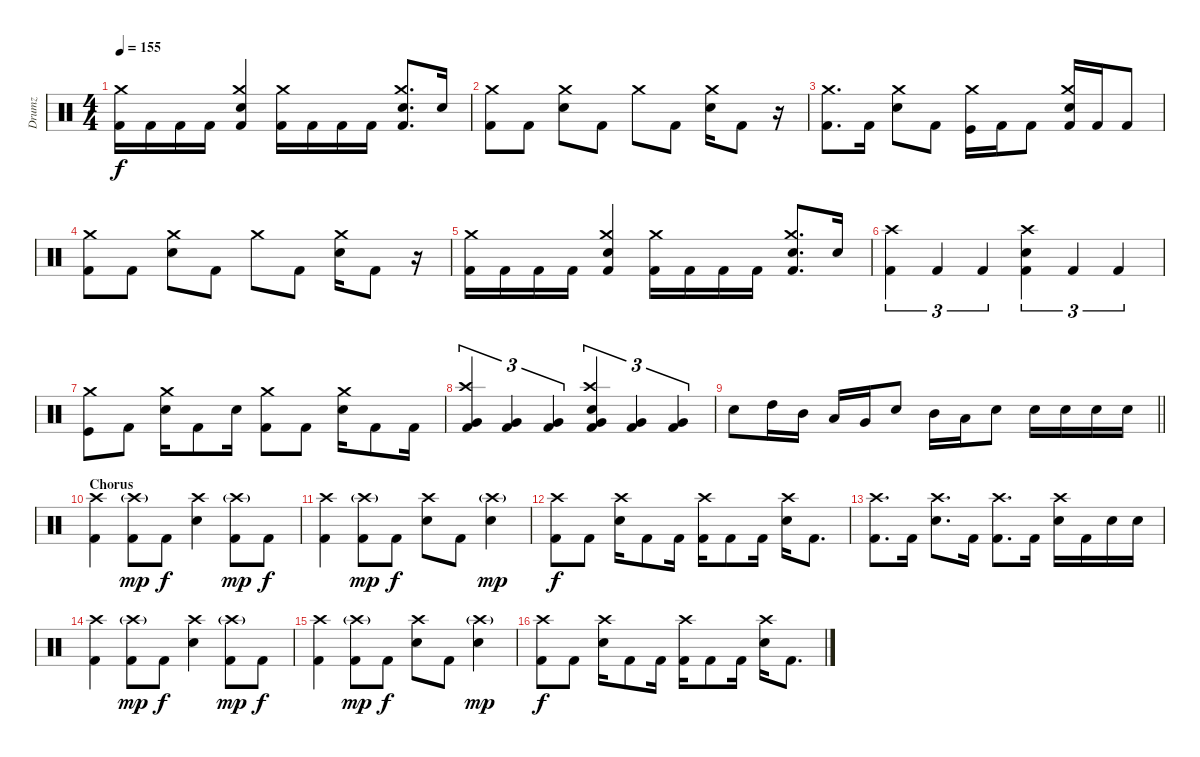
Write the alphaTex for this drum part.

\track ("Drumz" "Drumz") {instrument percussion}
\staff {score}
\articulation defaults
\ts (4 4)
\tempo 155
\clef neutral
\ks c
("Kick (hit) 2" "Crash medium (hit)").16{dy f} "Kick (hit) 2".16 "Kick (hit) 2".16 "Kick (hit) 2".16 ("Kick (hit) 2" "Crash medium (hit)" "Electric Snare (hit)").4 ("Kick (hit) 2" "Crash medium (hit)").16 "Kick (hit) 2".16 "Kick (hit) 2".16 "Kick (hit) 2".16 ("Kick (hit) 2" "Crash medium (hit)" "Electric Snare (hit)").8{d} "Electric Snare (hit)".16 |
("Crash medium (hit)" "Kick (hit) 2").8 "Kick (hit) 2".8 ("Crash medium (hit)" "Electric Snare (hit)").8 "Kick (hit) 2".8 "Crash medium (hit)".8 "Kick (hit) 2".8 ("Crash medium (hit)" "Electric Snare (hit)").16 "Kick (hit) 2".8 r.16 |
("Crash medium (hit)" "Kick (hit) 2").8{d} "Kick (hit) 2".16 ("Crash medium (hit)" "Electric Snare (hit)").8 "Kick (hit) 2".8 ("Crash medium (hit)" "Kick (hit)").16 "Kick (hit) 2".16 "Kick (hit) 2".8 ("Kick (hit) 2" "Crash medium (hit)" "Electric Snare (hit)").16 "Kick (hit) 2".16 "Kick (hit) 2".8 |
("Crash medium (hit)" "Kick (hit) 2").8 "Kick (hit) 2".8 ("Crash medium (hit)" "Electric Snare (hit)").8 "Kick (hit) 2".8 "Crash medium (hit)".8 "Kick (hit) 2".8 ("Crash medium (hit)" "Electric Snare (hit)").16 "Kick (hit) 2".8 r.16 |
("Kick (hit) 2" "Crash medium (hit)").16 "Kick (hit) 2".16 "Kick (hit) 2".16 "Kick (hit) 2".16 ("Kick (hit) 2" "Crash medium (hit)" "Electric Snare (hit)").4 ("Kick (hit) 2" "Crash medium (hit)").16 "Kick (hit) 2".16 "Kick (hit) 2".16 "Kick (hit) 2".16 ("Kick (hit) 2" "Crash medium (hit)" "Electric Snare (hit)").8{d} "Electric Snare (hit)".16 |
("Crash high (hit)" "Kick (hit) 2").4{tu (3 2)} "Kick (hit) 2".4{tu (3 2)} "Kick (hit) 2".4{tu (3 2)} ("Crash high (hit)" "Kick (hit) 2" "Electric Snare (hit)").4{tu (3 2)} "Kick (hit) 2".4{tu (3 2)} "Kick (hit) 2".4{tu (3 2)} |
("Kick (hit)" "Crash medium (hit)").8 "Kick (hit) 2".8 ("Electric Snare (hit)" "Crash medium (hit)").16 "Kick (hit) 2".8 "Electric Snare (hit)".16 ("Crash medium (hit)" "Kick (hit) 2").8 "Kick (hit) 2".8 ("Crash medium (hit)" "Electric Snare (hit)").16 "Kick (hit) 2".8 "Kick (hit) 2".16 |
("Crash high (hit)" "Kick (hit) 2" "Very Low Tom (hit)").4{tu (3 2)} ("Kick (hit) 2" "Very Low Tom (hit)").4{tu (3 2)} ("Kick (hit) 2" "Very Low Tom (hit)").4{tu (3 2)} ("Crash high (hit)" "Kick (hit) 2" "Electric Snare (hit)" "Very Low Tom (hit)").4{tu (3 2)} ("Kick (hit) 2" "Very Low Tom (hit)").4{tu (3 2)} ("Kick (hit) 2" "Very Low Tom (hit)").4{tu (3 2)} |
\barLineRight lightlight "Electric Snare (hit)".8 "High Tom (hit)".16 "Mid Tom (hit)".16 "Low Tom (hit)".16 "Very Low Tom (hit)".16 "Electric Snare (hit)".8 "Mid Tom (hit)".16 "Low Tom (hit)".16 "Electric Snare (hit)".8 "Electric Snare (hit)".16 "Electric Snare (hit)".16 "Electric Snare (hit)".16 "Electric Snare (hit)".16
|
\section ("" "Chorus")
("Kick (hit) 2" "Crash high (hit)").4 ("Kick (hit) 2" "Crash high (hit)"{g}).8{dy mp} "Kick (hit) 2".8{dy f} ("Crash high (hit)" "Electric Snare (hit)").4 ("Kick (hit) 2" "Crash high (hit)"{g}).8{dy mp} "Kick (hit) 2".8{dy f} |
("Kick (hit) 2" "Crash high (hit)").4 ("Kick (hit) 2" "Crash high (hit)"{g}).8{dy mp} "Kick (hit) 2".8{dy f} ("Crash high (hit)" "Electric Snare (hit)").8 "Kick (hit) 2".8 ("Electric Snare (hit)" "Crash high (hit)"{g}).4{dy mp} |
("Kick (hit) 2" "Crash high (hit)").8{dy f} "Kick (hit) 2".8 ("Crash high (hit)" "Electric Snare (hit)").16 "Kick (hit) 2".8 "Kick (hit) 2".16 ("Kick (hit) 2" "Crash high (hit)").16 "Kick (hit) 2".8 "Kick (hit) 2".16 ("Crash high (hit)" "Electric Snare (hit)").16 "Kick (hit) 2".8{d} |
("Kick (hit) 2" "Crash high (hit)").8{d} "Kick (hit) 2".16 ("Crash high (hit)" "Electric Snare (hit)").8{d} "Kick (hit) 2".16 ("Kick (hit) 2" "Crash high (hit)").8{d} "Kick (hit) 2".16 ("Crash high (hit)" "Electric Snare (hit)").16 "Kick (hit) 2".16 "Electric Snare (hit)".16 "Electric Snare (hit)".16 |
("Kick (hit) 2" "Crash high (hit)").4 ("Kick (hit) 2" "Crash high (hit)"{g}).8{dy mp} "Kick (hit) 2".8{dy f} ("Crash high (hit)" "Electric Snare (hit)").4 ("Kick (hit) 2" "Crash high (hit)"{g}).8{dy mp} "Kick (hit) 2".8{dy f} |
("Kick (hit) 2" "Crash high (hit)").4 ("Kick (hit) 2" "Crash high (hit)"{g}).8{dy mp} "Kick (hit) 2".8{dy f} ("Crash high (hit)" "Electric Snare (hit)").8 "Kick (hit) 2".8 ("Electric Snare (hit)" "Crash high (hit)"{g}).4{dy mp} |
("Kick (hit) 2" "Crash high (hit)").8{dy f} "Kick (hit) 2".8 ("Crash high (hit)" "Electric Snare (hit)").16 "Kick (hit) 2".8 "Kick (hit) 2".16 ("Kick (hit) 2" "Crash high (hit)").16 "Kick (hit) 2".8 "Kick (hit) 2".16 ("Crash high (hit)" "Electric Snare (hit)").16 "Kick (hit) 2".8{d}
